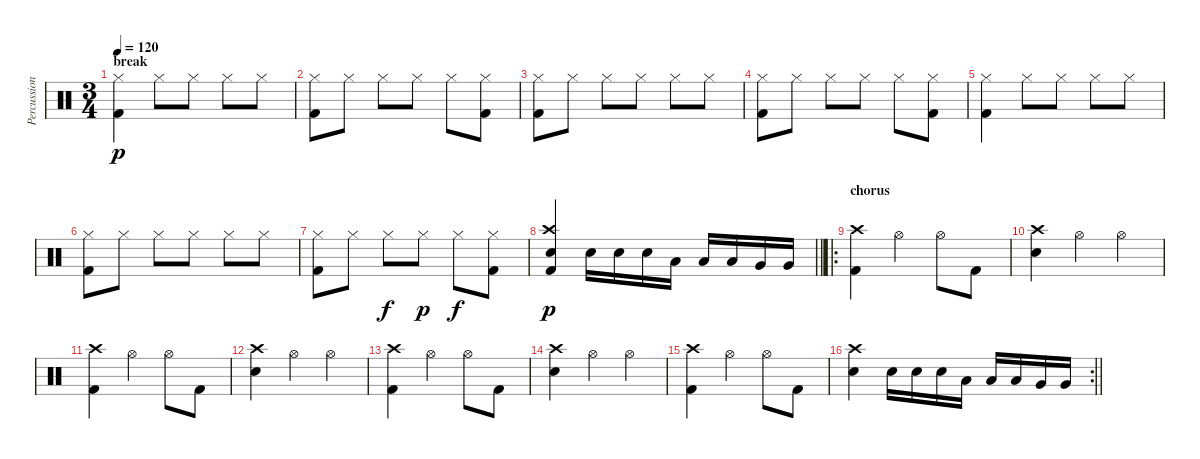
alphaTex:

\track ("Percussion" "Percussion") {instrument percussion}
\staff {score}
\articulation defaults
\ts (3 4)
\section ("" "break")
\tempo 120
\clef neutral
\ks c
("Hi-Hat (closed)" "Kick (hit) 2").4{dy p} "Hi-Hat (closed)".8 "Hi-Hat (closed)".8 "Hi-Hat (closed)".8 "Hi-Hat (closed)".8 |
("Hi-Hat (closed)" "Kick (hit) 2").8 "Hi-Hat (closed)".8 "Hi-Hat (closed)".8 "Hi-Hat (closed)".8 "Hi-Hat (closed)".8 ("Hi-Hat (closed)" "Kick (hit) 2").8 |
("Hi-Hat (closed)" "Kick (hit) 2").8 "Hi-Hat (closed)".8 "Hi-Hat (closed)".8 "Hi-Hat (closed)".8 "Hi-Hat (closed)".8 "Hi-Hat (closed)".8 |
("Hi-Hat (closed)" "Kick (hit) 2").8 "Hi-Hat (closed)".8 "Hi-Hat (closed)".8 "Hi-Hat (closed)".8 "Hi-Hat (closed)".8 ("Hi-Hat (closed)" "Kick (hit) 2").8 |
("Hi-Hat (closed)" "Kick (hit) 2").4 "Hi-Hat (closed)".8 "Hi-Hat (closed)".8 "Hi-Hat (closed)".8 "Hi-Hat (closed)".8 |
("Hi-Hat (closed)" "Kick (hit) 2").8 "Hi-Hat (closed)".8 "Hi-Hat (closed)".8 "Hi-Hat (closed)".8 "Hi-Hat (closed)".8 "Hi-Hat (closed)".8 |
("Hi-Hat (closed)" "Kick (hit) 2").8 "Hi-Hat (closed)".8 "Hi-Hat (closed)".8{dy f} "Hi-Hat (closed)".8{dy p} "Hi-Hat (closed)".8{dy f} ("Hi-Hat (closed)" "Kick (hit) 2").8 |
\barLineRight lightlight
("Crash high (hit)" "Snare (hit) 2" "Kick (hit) 2").4{dy p} "Snare (hit) 2".16 "Snare (hit) 2".16 "Snare (hit) 2".16 "Low Tom (hit)".16 "Low Tom (hit)".16 "Low Tom (hit)".16 "Very Low Tom (hit)".16 "Very Low Tom (hit)".16 |
\ro
\section ("" "chorus")
("Crash high (hit)" "Kick (hit) 2").4 "Hi-Hat (open)".4 "Hi-Hat (open)".8 "Kick (hit) 2".8 |
("Crash high (hit)" "Snare (hit) 2").4 "Hi-Hat (open)".4 "Hi-Hat (open)".4 |
("Crash high (hit)" "Kick (hit) 2").4 "Hi-Hat (open)".4 "Hi-Hat (open)".8 "Kick (hit) 2".8 |
("Crash high (hit)" "Snare (hit) 2").4 "Hi-Hat (open)".4 "Hi-Hat (open)".4 |
("Crash high (hit)" "Kick (hit) 2").4 "Hi-Hat (open)".4 "Hi-Hat (open)".8 "Kick (hit) 2".8 |
("Crash high (hit)" "Snare (hit) 2").4 "Hi-Hat (open)".4 "Hi-Hat (open)".4 |
("Crash high (hit)" "Kick (hit) 2").4 "Hi-Hat (open)".4 "Hi-Hat (open)".8 "Kick (hit) 2".8 |
\rc 2
\barLineRight lightlight
("Crash high (hit)" "Snare (hit) 2").4 "Snare (hit) 2".16 "Snare (hit) 2".16 "Snare (hit) 2".16 "Low Tom (hit)".16 "Low Tom (hit)".16 "Low Tom (hit)".16 "Very Low Tom (hit)".16 "Very Low Tom (hit)".16
